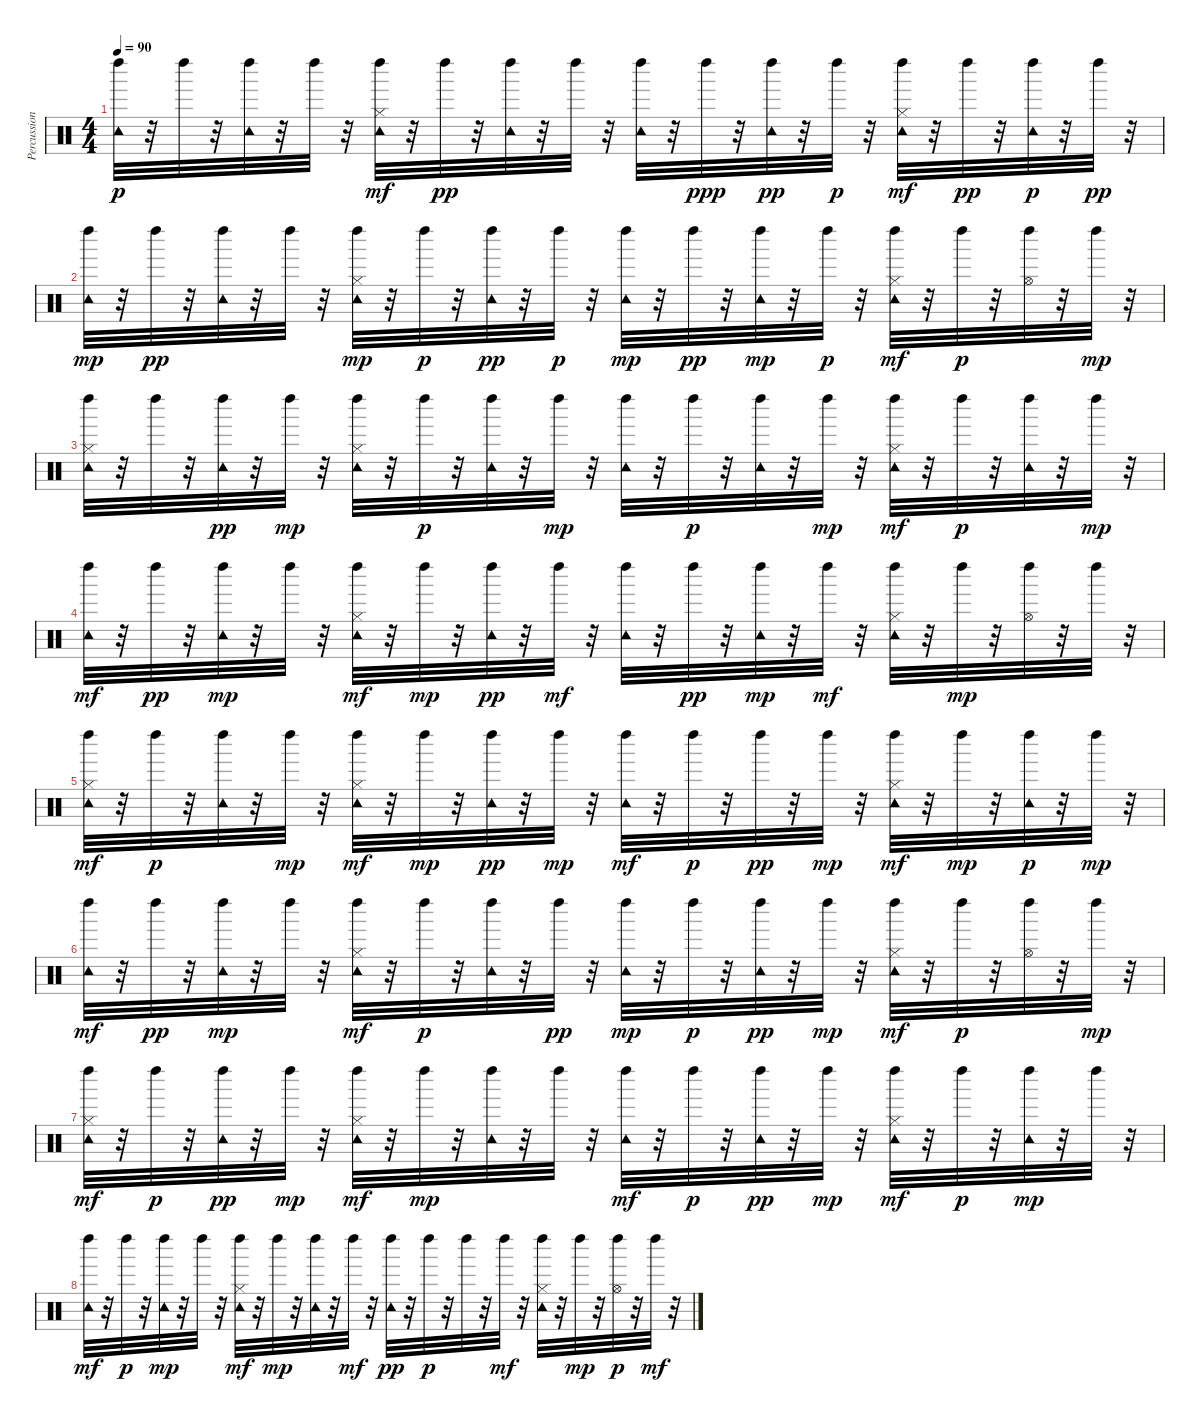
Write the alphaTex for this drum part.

\track ("Percussions" "Percussion") {instrument percussion}
\staff {score}
\articulation defaults
\ts (4 4)
\tempo 90
\clef neutral
\ks c
("Tambourine (hit)" "Left Maraca (hit)").32{dy p} r.32 "Left Maraca (hit)".32 r.32 ("Tambourine (hit)" "Left Maraca (hit)").32 r.32 "Left Maraca (hit)".32 r.32 ("Hi-Hat (closed)" "Tambourine (hit)" "Left Maraca (hit)").32{dy mf} r.32 "Left Maraca (hit)".32{dy pp} r.32 ("Tambourine (hit)" "Left Maraca (hit)").32 r.32 "Left Maraca (hit)".32 r.32 ("Tambourine (hit)" "Left Maraca (hit)").32 r.32 "Left Maraca (hit)".32{dy ppp} r.32 ("Tambourine (hit)" "Left Maraca (hit)").32{dy pp} r.32 "Left Maraca (hit)".32{dy p} r.32 ("Hi-Hat (closed)" "Tambourine (hit)" "Left Maraca (hit)").32{dy mf} r.32 "Left Maraca (hit)".32{dy pp} r.32 ("Tambourine (hit)" "Left Maraca (hit)").32{dy p} r.32 "Left Maraca (hit)".32{dy pp} r.32 |
("Tambourine (hit)" "Left Maraca (hit)").32{dy mp} r.32 "Left Maraca (hit)".32{dy pp} r.32 ("Tambourine (hit)" "Left Maraca (hit)").32 r.32 "Left Maraca (hit)".32 r.32 ("Hi-Hat (closed)" "Tambourine (hit)" "Left Maraca (hit)").32{dy mp} r.32 "Left Maraca (hit)".32{dy p} r.32 ("Tambourine (hit)" "Left Maraca (hit)").32{dy pp} r.32 "Left Maraca (hit)".32{dy p} r.32 ("Tambourine (hit)" "Left Maraca (hit)").32{dy mp} r.32 "Left Maraca (hit)".32{dy pp} r.32 ("Tambourine (hit)" "Left Maraca (hit)").32{dy mp} r.32 "Left Maraca (hit)".32{dy p} r.32 ("Hi-Hat (closed)" "Tambourine (hit)" "Left Maraca (hit)").32{dy mf} r.32 "Left Maraca (hit)".32{dy p} r.32 ("Hi-Hat (open)" "Left Maraca (hit)").32 r.32 "Left Maraca (hit)".32{dy mp} r.32 |
("Hi-Hat (closed)" "Tambourine (hit)" "Left Maraca (hit)").32 r.32 "Left Maraca (hit)".32 r.32 ("Tambourine (hit)" "Left Maraca (hit)").32{dy pp} r.32 "Left Maraca (hit)".32{dy mp} r.32 ("Hi-Hat (closed)" "Tambourine (hit)" "Left Maraca (hit)").32 r.32 "Left Maraca (hit)".32{dy p} r.32 ("Tambourine (hit)" "Left Maraca (hit)").32 r.32 "Left Maraca (hit)".32{dy mp} r.32 ("Tambourine (hit)" "Left Maraca (hit)").32 r.32 "Left Maraca (hit)".32{dy p} r.32 ("Tambourine (hit)" "Left Maraca (hit)").32 r.32 "Left Maraca (hit)".32{dy mp} r.32 ("Hi-Hat (closed)" "Tambourine (hit)" "Left Maraca (hit)").32{dy mf} r.32 "Left Maraca (hit)".32{dy p} r.32 ("Tambourine (hit)" "Left Maraca (hit)").32 r.32 "Left Maraca (hit)".32{dy mp} r.32 |
("Tambourine (hit)" "Left Maraca (hit)").32{dy mf} r.32 "Left Maraca (hit)".32{dy pp} r.32 ("Tambourine (hit)" "Left Maraca (hit)").32{dy mp} r.32 "Left Maraca (hit)".32 r.32 ("Hi-Hat (closed)" "Tambourine (hit)" "Left Maraca (hit)").32{dy mf} r.32 "Left Maraca (hit)".32{dy mp} r.32 ("Tambourine (hit)" "Left Maraca (hit)").32{dy pp} r.32 "Left Maraca (hit)".32{dy mf} r.32 ("Tambourine (hit)" "Left Maraca (hit)").32 r.32 "Left Maraca (hit)".32{dy pp} r.32 ("Tambourine (hit)" "Left Maraca (hit)").32{dy mp} r.32 "Left Maraca (hit)".32{dy mf} r.32 ("Hi-Hat (closed)" "Tambourine (hit)" "Left Maraca (hit)").32 r.32 "Left Maraca (hit)".32{dy mp} r.32 ("Hi-Hat (open)" "Left Maraca (hit)").32 r.32 "Left Maraca (hit)".32 r.32 |
("Hi-Hat (closed)" "Tambourine (hit)" "Left Maraca (hit)").32{dy mf} r.32 "Left Maraca (hit)".32{dy p} r.32 ("Tambourine (hit)" "Left Maraca (hit)").32 r.32 "Left Maraca (hit)".32{dy mp} r.32 ("Hi-Hat (closed)" "Tambourine (hit)" "Left Maraca (hit)").32{dy mf} r.32 "Left Maraca (hit)".32{dy mp} r.32 ("Tambourine (hit)" "Left Maraca (hit)").32{dy pp} r.32 "Left Maraca (hit)".32{dy mp} r.32 ("Tambourine (hit)" "Left Maraca (hit)").32{dy mf} r.32 "Left Maraca (hit)".32{dy p} r.32 "Left Maraca (hit)".32{dy pp} r.32 "Left Maraca (hit)".32{dy mp} r.32 ("Hi-Hat (closed)" "Tambourine (hit)" "Left Maraca (hit)").32{dy mf} r.32 "Left Maraca (hit)".32{dy mp} r.32 ("Tambourine (hit)" "Left Maraca (hit)").32{dy p} r.32 "Left Maraca (hit)".32{dy mp} r.32 |
("Tambourine (hit)" "Left Maraca (hit)").32{dy mf} r.32 "Left Maraca (hit)".32{dy pp} r.32 ("Tambourine (hit)" "Left Maraca (hit)").32{dy mp} r.32 "Left Maraca (hit)".32 r.32 ("Hi-Hat (closed)" "Tambourine (hit)" "Left Maraca (hit)").32{dy mf} r.32 "Left Maraca (hit)".32{dy p} r.32 ("Tambourine (hit)" "Left Maraca (hit)").32 r.32 "Left Maraca (hit)".32{dy pp} r.32 ("Tambourine (hit)" "Left Maraca (hit)").32{dy mp} r.32 "Left Maraca (hit)".32{dy p} r.32 ("Tambourine (hit)" "Left Maraca (hit)").32{dy pp} r.32 "Left Maraca (hit)".32{dy mp} r.32 ("Hi-Hat (closed)" "Tambourine (hit)" "Left Maraca (hit)").32{dy mf} r.32 "Left Maraca (hit)".32{dy p} r.32 ("Hi-Hat (open)" "Left Maraca (hit)").32 r.32 "Left Maraca (hit)".32{dy mp} r.32 |
("Hi-Hat (closed)" "Tambourine (hit)" "Left Maraca (hit)").32{dy mf} r.32 "Left Maraca (hit)".32{dy p} r.32 ("Tambourine (hit)" "Left Maraca (hit)").32{dy pp} r.32 "Left Maraca (hit)".32{dy mp} r.32 ("Hi-Hat (closed)" "Tambourine (hit)" "Left Maraca (hit)").32{dy mf} r.32 "Left Maraca (hit)".32{dy mp} r.32 ("Tambourine (hit)" "Left Maraca (hit)").32 r.32 "Left Maraca (hit)".32 r.32 ("Tambourine (hit)" "Left Maraca (hit)").32{dy mf} r.32 "Left Maraca (hit)".32{dy p} r.32 ("Tambourine (hit)" "Left Maraca (hit)").32{dy pp} r.32 "Left Maraca (hit)".32{dy mp} r.32 ("Hi-Hat (closed)" "Tambourine (hit)" "Left Maraca (hit)").32{dy mf} r.32 "Left Maraca (hit)".32{dy p} r.32 ("Tambourine (hit)" "Left Maraca (hit)").32{dy mp} r.32 "Left Maraca (hit)".32 r.32 |
("Tambourine (hit)" "Left Maraca (hit)").32{dy mf} r.32 "Left Maraca (hit)".32{dy p} r.32 ("Tambourine (hit)" "Left Maraca (hit)").32{dy mp} r.32 "Left Maraca (hit)".32 r.32 ("Hi-Hat (closed)" "Tambourine (hit)" "Left Maraca (hit)").32{dy mf} r.32 "Left Maraca (hit)".32{dy mp} r.32 ("Tambourine (hit)" "Left Maraca (hit)").32 r.32 "Left Maraca (hit)".32{dy mf} r.32 ("Tambourine (hit)" "Left Maraca (hit)").32{dy pp} r.32 "Left Maraca (hit)".32{dy p} r.32 "Left Maraca (hit)".32 r.32 "Left Maraca (hit)".32{dy mf} r.32 ("Hi-Hat (closed)" "Tambourine (hit)" "Left Maraca (hit)").32 r.32 "Left Maraca (hit)".32{dy mp} r.32 ("Hi-Hat (open)" "Left Maraca (hit)").32{dy p} r.32 "Left Maraca (hit)".32{dy mf} r.32
